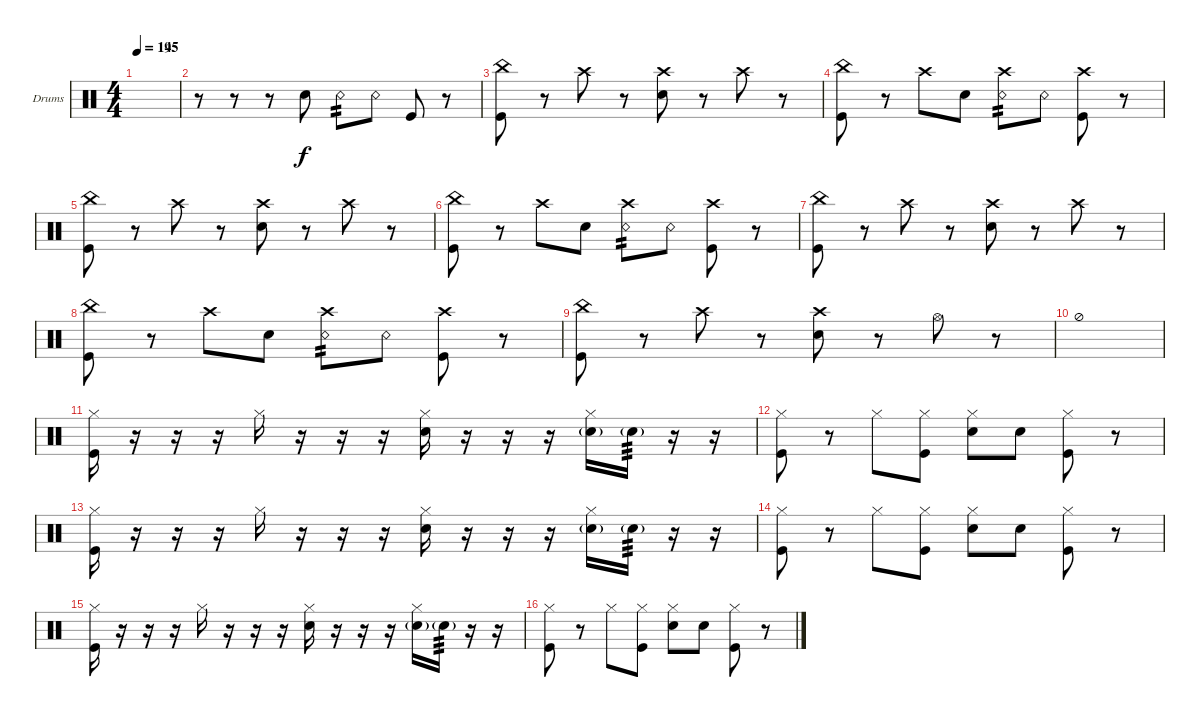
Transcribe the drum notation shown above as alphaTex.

\defaultSystemsLayout 4
\bracketExtendMode groupsimilarinstruments
\firstSystemTrackNameOrientation horizontal
\otherSystemsTrackNameOrientation horizontal
\track ("Drumkit" "Drums") {instrument percussion}
\staff {score}
\articulation defaults
\ts (4 4)
\tempo 195
\tempo (145 0.00625)
\clef neutral
\ks c
|
r.8 r.8 r.8 "Snare (hit) 2".8 "Snare (rim shot)".8{tp 2} "Snare (rim shot)".8 "Kick (hit)".8 r.8 |
("Kick (hit)" "China (hit)").8 r.8 "Crash high (hit)".8 r.8 ("Snare (hit) 2" "Crash high (hit)").8 r.8 "Crash high (hit)".8 r.8 |
("Kick (hit)" "China (hit)").8 r.8 "Crash high (hit)".8 "Snare (hit) 2".8 ("Snare (rim shot)" "Crash high (hit)").8{tp 2} "Snare (rim shot)".8 ("Kick (hit)" "Crash high (hit)").8 r.8 |
("Kick (hit)" "China (hit)").8 r.8 "Crash high (hit)".8 r.8 ("Snare (hit) 2" "Crash high (hit)").8 r.8 "Crash high (hit)".8 r.8 |
("Kick (hit)" "China (hit)").8 r.8 "Crash high (hit)".8 "Snare (hit) 2".8 ("Snare (rim shot)" "Crash high (hit)").8{tp 2} "Snare (rim shot)".8 ("Kick (hit)" "Crash high (hit)").8 r.8 |
("Kick (hit)" "China (hit)").8 r.8 "Crash high (hit)".8 r.8 ("Snare (hit) 2" "Crash high (hit)").8 r.8 "Crash high (hit)".8 r.8 |
("Kick (hit)" "China (hit)").8 r.8 "Crash high (hit)".8 "Snare (hit) 2".8 ("Snare (rim shot)" "Crash high (hit)").8{tp 2} "Snare (rim shot)".8 ("Kick (hit)" "Crash high (hit)").8 r.8 |
("Kick (hit)" "China (hit)").8 r.8 "Crash high (hit)".8 r.8 ("Snare (hit) 2" "Crash high (hit)").8 r.8 "Hi-Hat (open)".8 r.8 |
"Hi-Hat (half)".1 |
("Kick (hit)" "Hi-Hat (closed)").16 r.16 r.16 r.16 "Hi-Hat (closed)".16 r.16 r.16 r.16 ("Snare (hit) 2" "Hi-Hat (closed)").16 r.16 r.16 r.16 ("Snare (hit) 2"{g} "Hi-Hat (closed)").16 "Snare (hit) 2"{g}.16{tp 3} r.16 r.16 |
("Kick (hit)" "Hi-Hat (closed)").8 r.8 "Hi-Hat (closed)".8 ("Kick (hit)" "Hi-Hat (closed)").8 ("Snare (hit) 2" "Hi-Hat (closed)").8 "Snare (hit) 2".8 ("Kick (hit)" "Hi-Hat (closed)").8 r.8 |
("Kick (hit)" "Hi-Hat (closed)").16 r.16 r.16 r.16 "Hi-Hat (closed)".16 r.16 r.16 r.16 ("Snare (hit) 2" "Hi-Hat (closed)").16 r.16 r.16 r.16 ("Snare (hit) 2"{g} "Hi-Hat (closed)").16 "Snare (hit) 2"{g}.16{tp 3} r.16 r.16 |
("Kick (hit)" "Hi-Hat (closed)").8 r.8 "Hi-Hat (closed)".8 ("Kick (hit)" "Hi-Hat (closed)").8 ("Snare (hit) 2" "Hi-Hat (closed)").8 "Snare (hit) 2".8 ("Kick (hit)" "Hi-Hat (closed)").8 r.8 |
("Kick (hit)" "Hi-Hat (closed)").16 r.16 r.16 r.16 "Hi-Hat (closed)".16 r.16 r.16 r.16 ("Snare (hit) 2" "Hi-Hat (closed)").16 r.16 r.16 r.16 ("Snare (hit) 2"{g} "Hi-Hat (closed)").16 "Snare (hit) 2"{g}.16{tp 3} r.16 r.16 |
("Kick (hit)" "Hi-Hat (closed)").8 r.8 "Hi-Hat (closed)".8 ("Kick (hit)" "Hi-Hat (closed)").8 ("Snare (hit) 2" "Hi-Hat (closed)").8 "Snare (hit) 2".8 ("Kick (hit)" "Hi-Hat (closed)").8 r.8
